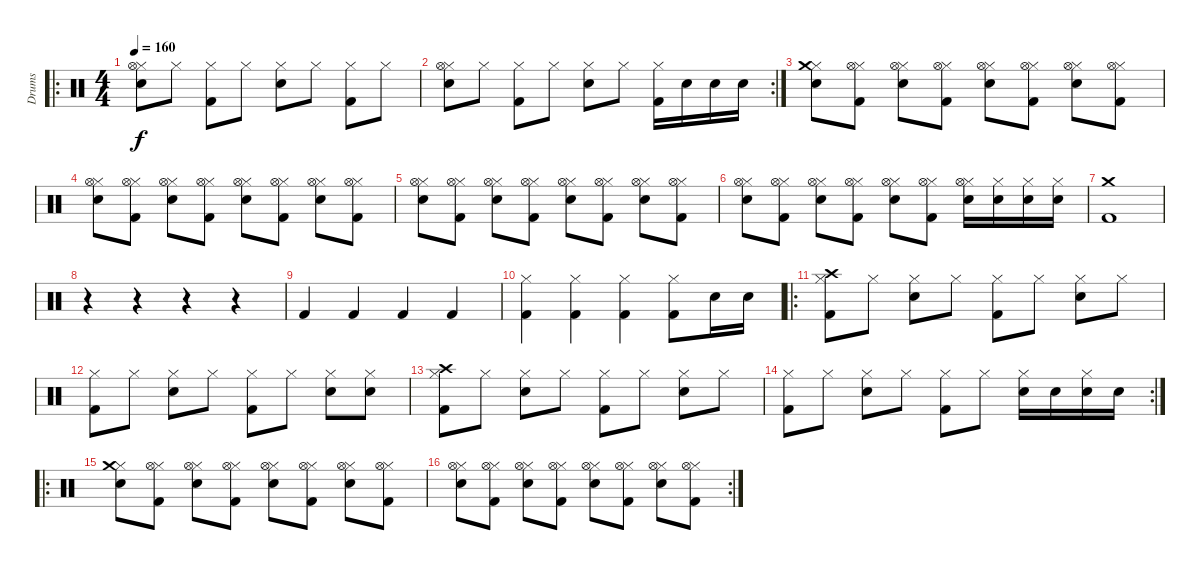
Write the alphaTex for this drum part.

\track ("Drums" "Drums") {instrument percussion}
\staff {score}
\articulation defaults
\ro
\ts (4 4)
\tempo 160
\clef neutral
\ks c
("Hi-Hat (closed)" "Electric Snare (hit)" "Hi-Hat (open)").8{dy f} "Hi-Hat (closed)".8 ("Hi-Hat (closed)" "Kick (hit) 2").8 "Hi-Hat (closed)".8 ("Hi-Hat (closed)" "Electric Snare (hit)").8 "Hi-Hat (closed)".8 ("Hi-Hat (closed)" "Kick (hit) 2").8 "Hi-Hat (closed)".8 |
\rc 2
("Hi-Hat (closed)" "Electric Snare (hit)" "Hi-Hat (open)").8 "Hi-Hat (closed)".8 ("Hi-Hat (closed)" "Kick (hit) 2").8 "Hi-Hat (closed)".8 ("Hi-Hat (closed)" "Electric Snare (hit)").8 "Hi-Hat (closed)".8 ("Hi-Hat (closed)" "Kick (hit) 2").16 "Electric Snare (hit)".16 "Electric Snare (hit)".16 "Electric Snare (hit)".16 |
("Hi-Hat (closed)" "Electric Snare (hit)" "Crash medium (hit)").8 ("Hi-Hat (closed)" "Kick (hit) 2" "Hi-Hat (open)").8 ("Hi-Hat (closed)" "Electric Snare (hit)" "Hi-Hat (open)").8 ("Hi-Hat (closed)" "Kick (hit) 2" "Hi-Hat (open)").8 ("Hi-Hat (closed)" "Electric Snare (hit)" "Hi-Hat (open)").8 ("Hi-Hat (closed)" "Kick (hit) 2" "Hi-Hat (open)").8 ("Hi-Hat (closed)" "Electric Snare (hit)" "Hi-Hat (open)").8 ("Hi-Hat (closed)" "Kick (hit) 2" "Hi-Hat (open)").8 |
("Hi-Hat (closed)" "Electric Snare (hit)" "Hi-Hat (open)").8 ("Hi-Hat (closed)" "Kick (hit) 2" "Hi-Hat (open)").8 ("Hi-Hat (closed)" "Electric Snare (hit)" "Hi-Hat (open)").8 ("Hi-Hat (closed)" "Kick (hit) 2" "Hi-Hat (open)").8 ("Hi-Hat (closed)" "Electric Snare (hit)" "Hi-Hat (open)").8 ("Hi-Hat (closed)" "Kick (hit) 2" "Hi-Hat (open)").8 ("Hi-Hat (closed)" "Electric Snare (hit)" "Hi-Hat (open)").8 ("Hi-Hat (closed)" "Kick (hit) 2" "Hi-Hat (open)").8 |
("Hi-Hat (closed)" "Electric Snare (hit)" "Hi-Hat (open)").8 ("Hi-Hat (closed)" "Kick (hit) 2" "Hi-Hat (open)").8 ("Hi-Hat (closed)" "Electric Snare (hit)" "Hi-Hat (open)").8 ("Hi-Hat (closed)" "Kick (hit) 2" "Hi-Hat (open)").8 ("Hi-Hat (closed)" "Electric Snare (hit)" "Hi-Hat (open)").8 ("Hi-Hat (closed)" "Kick (hit) 2" "Hi-Hat (open)").8 ("Hi-Hat (closed)" "Electric Snare (hit)" "Hi-Hat (open)").8 ("Hi-Hat (closed)" "Kick (hit) 2" "Hi-Hat (open)").8 |
("Hi-Hat (closed)" "Electric Snare (hit)" "Hi-Hat (open)").8 ("Hi-Hat (closed)" "Kick (hit) 2" "Hi-Hat (open)").8 ("Hi-Hat (closed)" "Electric Snare (hit)" "Hi-Hat (open)").8 ("Hi-Hat (closed)" "Kick (hit) 2" "Hi-Hat (open)").8 ("Hi-Hat (closed)" "Electric Snare (hit)" "Hi-Hat (open)").8 ("Hi-Hat (closed)" "Kick (hit) 2" "Hi-Hat (open)").8 ("Hi-Hat (closed)" "Electric Snare (hit)" "Hi-Hat (open)").16 ("Hi-Hat (closed)" "Electric Snare (hit)").16 ("Hi-Hat (closed)" "Electric Snare (hit)").16 ("Hi-Hat (closed)" "Electric Snare (hit)").16 |
("Crash medium (hit)" "Kick (hit) 2").1 |
r.4 r.4 r.4 r.4 |
"Kick (hit) 2".4 "Kick (hit) 2".4 "Kick (hit) 2".4 "Kick (hit) 2".4 |
("Kick (hit) 2" "Hi-Hat (closed)").4 ("Kick (hit) 2" "Hi-Hat (closed)").4 ("Kick (hit) 2" "Hi-Hat (closed)").4 ("Kick (hit) 2" "Hi-Hat (closed)").8 "Electric Snare (hit)".16 "Electric Snare (hit)".16 |
\ro
("Hi-Hat (closed)" "Crash high (hit)" "Kick (hit) 2").8 "Hi-Hat (closed)".8 ("Hi-Hat (closed)" "Electric Snare (hit)").8 "Hi-Hat (closed)".8 ("Hi-Hat (closed)" "Kick (hit) 2").8 "Hi-Hat (closed)".8 ("Hi-Hat (closed)" "Electric Snare (hit)").8 "Hi-Hat (closed)".8 |
("Hi-Hat (closed)" "Kick (hit) 2").8 "Hi-Hat (closed)".8 ("Hi-Hat (closed)" "Electric Snare (hit)").8 "Hi-Hat (closed)".8 ("Hi-Hat (closed)" "Kick (hit) 2").8 "Hi-Hat (closed)".8 ("Hi-Hat (closed)" "Electric Snare (hit)").8 ("Hi-Hat (closed)" "Electric Snare (hit)").8 |
("Hi-Hat (closed)" "Crash high (hit)" "Kick (hit) 2").8 "Hi-Hat (closed)".8 ("Hi-Hat (closed)" "Electric Snare (hit)").8 "Hi-Hat (closed)".8 ("Hi-Hat (closed)" "Kick (hit) 2").8 "Hi-Hat (closed)".8 ("Hi-Hat (closed)" "Electric Snare (hit)").8 "Hi-Hat (closed)".8 |
\rc 2
("Hi-Hat (closed)" "Kick (hit) 2").8 "Hi-Hat (closed)".8 ("Hi-Hat (closed)" "Electric Snare (hit)").8 "Hi-Hat (closed)".8 ("Hi-Hat (closed)" "Kick (hit) 2").8 "Hi-Hat (closed)".8 ("Hi-Hat (closed)" "Electric Snare (hit)").16 "Electric Snare (hit)".16 ("Hi-Hat (closed)" "Electric Snare (hit)").16 "Electric Snare (hit)".16 |
\ro
("Hi-Hat (closed)" "Electric Snare (hit)" "Crash medium (hit)").8 ("Hi-Hat (closed)" "Kick (hit) 2" "Hi-Hat (open)").8 ("Hi-Hat (closed)" "Electric Snare (hit)" "Hi-Hat (open)").8 ("Hi-Hat (closed)" "Kick (hit) 2" "Hi-Hat (open)").8 ("Hi-Hat (closed)" "Electric Snare (hit)" "Hi-Hat (open)").8 ("Hi-Hat (closed)" "Kick (hit) 2" "Hi-Hat (open)").8 ("Hi-Hat (closed)" "Electric Snare (hit)" "Hi-Hat (open)").8 ("Hi-Hat (closed)" "Kick (hit) 2" "Hi-Hat (open)").8 |
\rc 2
("Hi-Hat (closed)" "Electric Snare (hit)" "Hi-Hat (open)").8 ("Hi-Hat (closed)" "Kick (hit) 2" "Hi-Hat (open)").8 ("Hi-Hat (closed)" "Electric Snare (hit)" "Hi-Hat (open)").8 ("Hi-Hat (closed)" "Kick (hit) 2" "Hi-Hat (open)").8 ("Hi-Hat (closed)" "Electric Snare (hit)" "Hi-Hat (open)").8 ("Hi-Hat (closed)" "Kick (hit) 2" "Hi-Hat (open)").8 ("Hi-Hat (closed)" "Electric Snare (hit)" "Hi-Hat (open)").8 ("Hi-Hat (closed)" "Kick (hit) 2" "Hi-Hat (open)").8
